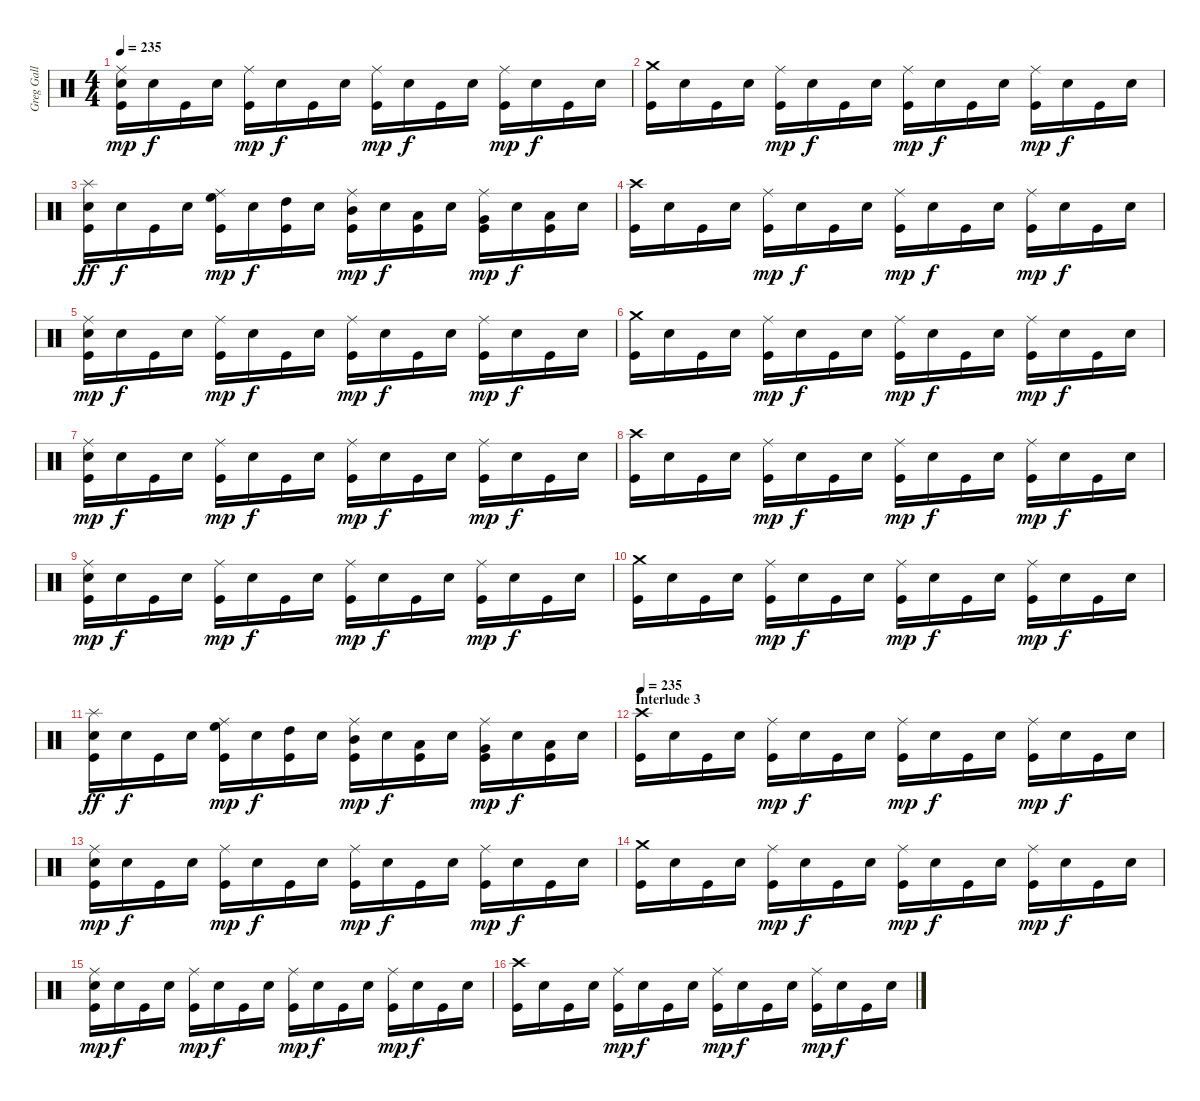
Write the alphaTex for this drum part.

\track ("Greg Gall - Drums" "Greg Gall ") {instrument percussion}
\staff {score}
\articulation defaults
\ts (4 4)
\tempo 235
\clef neutral
\ks c
("Ride (middle)" "Electric Snare (hit)" "Kick (hit)").16{dy mp} "Snare (hit)".16{dy f} "Kick (hit)".16 "Snare (hit)".16 ("Ride (middle)" "Kick (hit)").16{dy mp} "Snare (hit)".16{dy f} "Kick (hit)".16 "Snare (hit)".16 ("Ride (middle)" "Kick (hit)").16{dy mp} "Snare (hit)".16{dy f} "Kick (hit)".16 "Snare (hit)".16 ("Ride (middle)" "Kick (hit)").16{dy mp} "Snare (hit)".16{dy f} "Kick (hit)".16 "Snare (hit)".16 |
("Crash medium (hit)" "Kick (hit)").16 "Snare (hit)".16 "Kick (hit)".16 "Snare (hit)".16 ("Ride (middle)" "Kick (hit)").16{dy mp} "Snare (hit)".16{dy f} "Kick (hit)".16 "Snare (hit)".16 ("Ride (middle)" "Kick (hit)").16{dy mp} "Snare (hit)".16{dy f} "Kick (hit)".16 "Snare (hit)".16 ("Ride (middle)" "Kick (hit)").16{dy mp} "Snare (hit)".16{dy f} "Kick (hit)".16 "Snare (hit)".16 |
("Splash (hit)" "Electric Snare (hit)" "Kick (hit)").16{dy ff} "Snare (hit)".16{dy f} "Kick (hit)".16 "Snare (hit)".16 ("Ride (middle)" "High Floor Tom (hit)" "Kick (hit)").16{dy mp} "Snare (hit)".16{dy f} ("High Tom (hit)" "Kick (hit)").16 "Snare (hit)".16 ("Ride (middle)" "Mid Tom (hit)" "Kick (hit)").16{dy mp} "Snare (hit)".16{dy f} ("Low Tom (hit)" "Kick (hit)").16 "Snare (hit)".16 ("Ride (middle)" "Very Low Tom (hit)" "Kick (hit)").16{dy mp} "Snare (hit)".16{dy f} ("Low Floor Tom (hit)" "Kick (hit)").16 "Snare (hit)".16 |
("Crash high (hit)" "Kick (hit)").16 "Snare (hit)".16 "Kick (hit)".16 "Snare (hit)".16 ("Ride (middle)" "Kick (hit)").16{dy mp} "Snare (hit)".16{dy f} "Kick (hit)".16 "Snare (hit)".16 ("Ride (middle)" "Kick (hit)").16{dy mp} "Snare (hit)".16{dy f} "Kick (hit)".16 "Snare (hit)".16 ("Ride (middle)" "Kick (hit)").16{dy mp} "Snare (hit)".16{dy f} "Kick (hit)".16 "Snare (hit)".16 |
("Ride (middle)" "Electric Snare (hit)" "Kick (hit)").16{dy mp} "Snare (hit)".16{dy f} "Kick (hit)".16 "Snare (hit)".16 ("Ride (middle)" "Kick (hit)").16{dy mp} "Snare (hit)".16{dy f} "Kick (hit)".16 "Snare (hit)".16 ("Ride (middle)" "Kick (hit)").16{dy mp} "Snare (hit)".16{dy f} "Kick (hit)".16 "Snare (hit)".16 ("Ride (middle)" "Kick (hit)").16{dy mp} "Snare (hit)".16{dy f} "Kick (hit)".16 "Snare (hit)".16 |
("Crash medium (hit)" "Kick (hit)").16 "Snare (hit)".16 "Kick (hit)".16 "Snare (hit)".16 ("Ride (middle)" "Kick (hit)").16{dy mp} "Snare (hit)".16{dy f} "Kick (hit)".16 "Snare (hit)".16 ("Ride (middle)" "Kick (hit)").16{dy mp} "Snare (hit)".16{dy f} "Kick (hit)".16 "Snare (hit)".16 ("Ride (middle)" "Kick (hit)").16{dy mp} "Snare (hit)".16{dy f} "Kick (hit)".16 "Snare (hit)".16 |
("Ride (middle)" "Electric Snare (hit)" "Kick (hit)").16{dy mp} "Snare (hit)".16{dy f} "Kick (hit)".16 "Snare (hit)".16 ("Ride (middle)" "Kick (hit)").16{dy mp} "Snare (hit)".16{dy f} "Kick (hit)".16 "Snare (hit)".16 ("Ride (middle)" "Kick (hit)").16{dy mp} "Snare (hit)".16{dy f} "Kick (hit)".16 "Snare (hit)".16 ("Ride (middle)" "Kick (hit)").16{dy mp} "Snare (hit)".16{dy f} "Kick (hit)".16 "Snare (hit)".16 |
("Crash high (hit)" "Kick (hit)").16 "Snare (hit)".16 "Kick (hit)".16 "Snare (hit)".16 ("Ride (middle)" "Kick (hit)").16{dy mp} "Snare (hit)".16{dy f} "Kick (hit)".16 "Snare (hit)".16 ("Ride (middle)" "Kick (hit)").16{dy mp} "Snare (hit)".16{dy f} "Kick (hit)".16 "Snare (hit)".16 ("Ride (middle)" "Kick (hit)").16{dy mp} "Snare (hit)".16{dy f} "Kick (hit)".16 "Snare (hit)".16 |
("Ride (middle)" "Electric Snare (hit)" "Kick (hit)").16{dy mp} "Snare (hit)".16{dy f} "Kick (hit)".16 "Snare (hit)".16 ("Ride (middle)" "Kick (hit)").16{dy mp} "Snare (hit)".16{dy f} "Kick (hit)".16 "Snare (hit)".16 ("Ride (middle)" "Kick (hit)").16{dy mp} "Snare (hit)".16{dy f} "Kick (hit)".16 "Snare (hit)".16 ("Ride (middle)" "Kick (hit)").16{dy mp} "Snare (hit)".16{dy f} "Kick (hit)".16 "Snare (hit)".16 |
("Crash medium (hit)" "Kick (hit)").16 "Snare (hit)".16 "Kick (hit)".16 "Snare (hit)".16 ("Ride (middle)" "Kick (hit)").16{dy mp} "Snare (hit)".16{dy f} "Kick (hit)".16 "Snare (hit)".16 ("Ride (middle)" "Kick (hit)").16{dy mp} "Snare (hit)".16{dy f} "Kick (hit)".16 "Snare (hit)".16 ("Ride (middle)" "Kick (hit)").16{dy mp} "Snare (hit)".16{dy f} "Kick (hit)".16 "Snare (hit)".16 |
("Splash (hit)" "Electric Snare (hit)" "Kick (hit)").16{dy ff} "Snare (hit)".16{dy f} "Kick (hit)".16 "Snare (hit)".16 ("Ride (middle)" "High Floor Tom (hit)" "Kick (hit)").16{dy mp} "Snare (hit)".16{dy f} ("High Tom (hit)" "Kick (hit)").16 "Snare (hit)".16 ("Ride (middle)" "Mid Tom (hit)" "Kick (hit)").16{dy mp} "Snare (hit)".16{dy f} ("Low Tom (hit)" "Kick (hit)").16 "Snare (hit)".16 ("Ride (middle)" "Very Low Tom (hit)" "Kick (hit)").16{dy mp} "Snare (hit)".16{dy f} ("Low Floor Tom (hit)" "Kick (hit)").16 "Snare (hit)".16 |
\section ("" "Interlude 3")
\tempo 235
("Crash high (hit)" "Kick (hit)").16{volume 12 balance 8} "Snare (hit)".16 "Kick (hit)".16 "Snare (hit)".16 ("Ride (middle)" "Kick (hit)").16{dy mp} "Snare (hit)".16{dy f} "Kick (hit)".16 "Snare (hit)".16 ("Ride (middle)" "Kick (hit)").16{dy mp} "Snare (hit)".16{dy f} "Kick (hit)".16 "Snare (hit)".16 ("Ride (middle)" "Kick (hit)").16{dy mp} "Snare (hit)".16{dy f} "Kick (hit)".16 "Snare (hit)".16 |
("Ride (middle)" "Electric Snare (hit)" "Kick (hit)").16{dy mp} "Snare (hit)".16{dy f} "Kick (hit)".16 "Snare (hit)".16 ("Ride (middle)" "Kick (hit)").16{dy mp} "Snare (hit)".16{dy f} "Kick (hit)".16 "Snare (hit)".16 ("Ride (middle)" "Kick (hit)").16{dy mp} "Snare (hit)".16{dy f} "Kick (hit)".16 "Snare (hit)".16 ("Ride (middle)" "Kick (hit)").16{dy mp} "Snare (hit)".16{dy f} "Kick (hit)".16 "Snare (hit)".16 |
("Crash medium (hit)" "Kick (hit)").16 "Snare (hit)".16 "Kick (hit)".16 "Snare (hit)".16 ("Ride (middle)" "Kick (hit)").16{dy mp} "Snare (hit)".16{dy f} "Kick (hit)".16 "Snare (hit)".16 ("Ride (middle)" "Kick (hit)").16{dy mp} "Snare (hit)".16{dy f} "Kick (hit)".16 "Snare (hit)".16 ("Ride (middle)" "Kick (hit)").16{dy mp} "Snare (hit)".16{dy f} "Kick (hit)".16 "Snare (hit)".16 |
("Ride (middle)" "Electric Snare (hit)" "Kick (hit)").16{dy mp} "Snare (hit)".16{dy f} "Kick (hit)".16 "Snare (hit)".16 ("Ride (middle)" "Kick (hit)").16{dy mp} "Snare (hit)".16{dy f} "Kick (hit)".16 "Snare (hit)".16 ("Ride (middle)" "Kick (hit)").16{dy mp} "Snare (hit)".16{dy f} "Kick (hit)".16 "Snare (hit)".16 ("Ride (middle)" "Kick (hit)").16{dy mp} "Snare (hit)".16{dy f} "Kick (hit)".16 "Snare (hit)".16 |
("Crash high (hit)" "Kick (hit)").16 "Snare (hit)".16 "Kick (hit)".16 "Snare (hit)".16 ("Ride (middle)" "Kick (hit)").16{dy mp} "Snare (hit)".16{dy f} "Kick (hit)".16 "Snare (hit)".16 ("Ride (middle)" "Kick (hit)").16{dy mp} "Snare (hit)".16{dy f} "Kick (hit)".16 "Snare (hit)".16 ("Ride (middle)" "Kick (hit)").16{dy mp} "Snare (hit)".16{dy f} "Kick (hit)".16 "Snare (hit)".16
